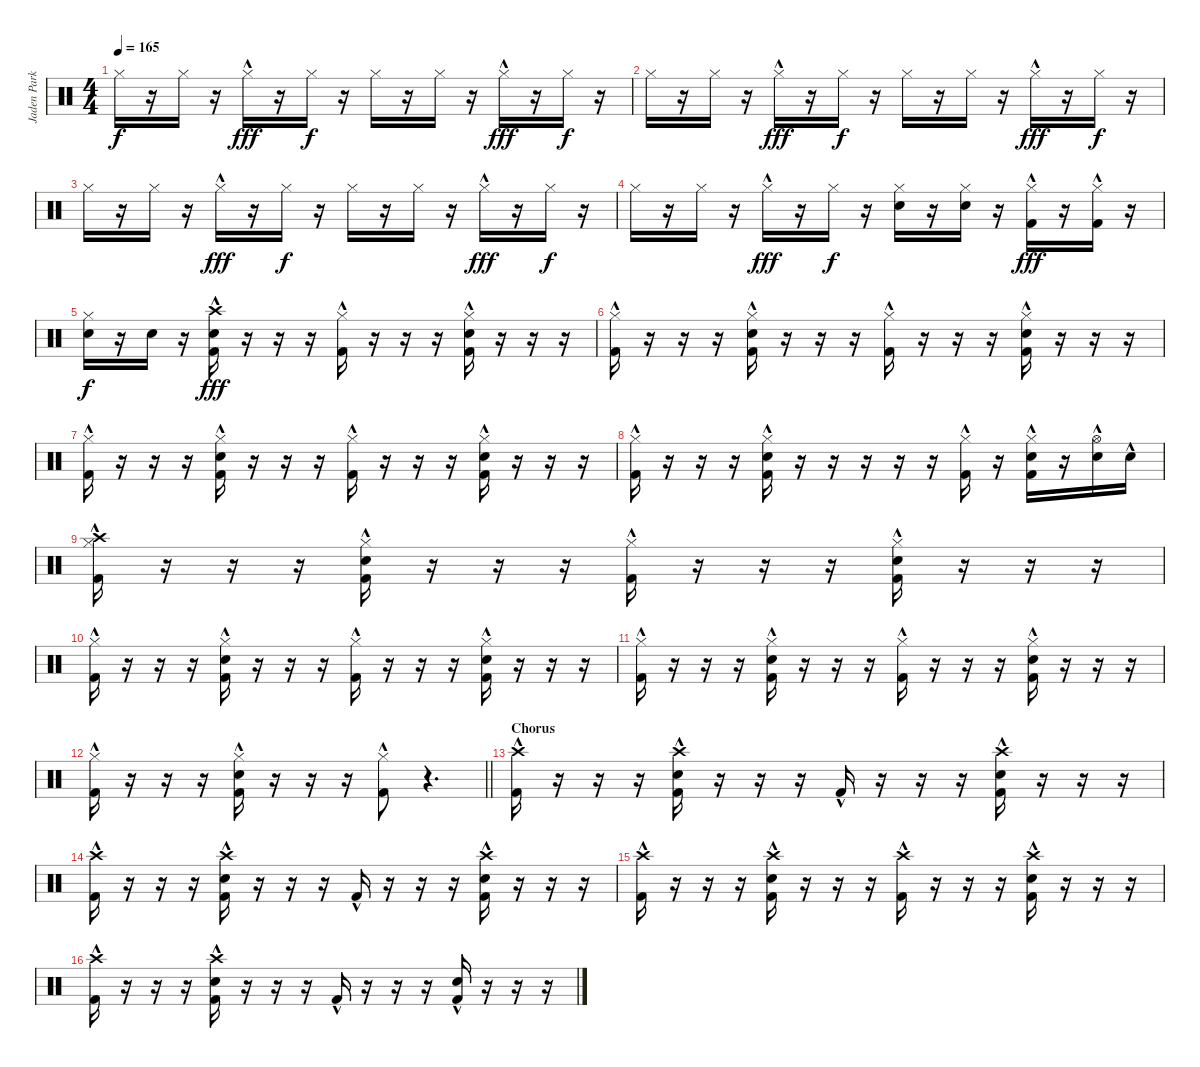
\track ("Jaden Parkes" "Jaden Park") {instrument percussion}
\staff {score}
\articulation defaults
\ts (4 4)
\tempo 165
\clef neutral
\ks c "Hi-Hat (closed)".16{dy f}
r.16 "Hi-Hat (closed)".16 r.16 "Hi-Hat (closed)"{hac}.16{dy fff} r.16 "Hi-Hat (closed)".16{dy f} r.16 "Hi-Hat (closed)".16 r.16 "Hi-Hat (closed)".16 r.16 "Hi-Hat (closed)"{hac}.16{dy fff} r.16 "Hi-Hat (closed)".16{dy f} r.16 |
"Hi-Hat (closed)".16 r.16 "Hi-Hat (closed)".16 r.16 "Hi-Hat (closed)"{hac}.16{dy fff} r.16 "Hi-Hat (closed)".16{dy f} r.16 "Hi-Hat (closed)".16 r.16 "Hi-Hat (closed)".16 r.16 "Hi-Hat (closed)"{hac}.16{dy fff} r.16 "Hi-Hat (closed)".16{dy f} r.16 |
"Hi-Hat (closed)".16 r.16 "Hi-Hat (closed)".16 r.16 "Hi-Hat (closed)"{hac}.16{dy fff} r.16 "Hi-Hat (closed)".16{dy f} r.16 "Hi-Hat (closed)".16 r.16 "Hi-Hat (closed)".16 r.16 "Hi-Hat (closed)"{hac}.16{dy fff} r.16 "Hi-Hat (closed)".16{dy f} r.16 |
"Hi-Hat (closed)".16{volume 14} r.16 "Hi-Hat (closed)".16 r.16 "Hi-Hat (closed)"{hac}.16{dy fff} r.16 "Hi-Hat (closed)".16{dy f} r.16 ("Hi-Hat (closed)" "Electric Snare (hit)").16 r.16 ("Hi-Hat (closed)" "Electric Snare (hit)").16 r.16 ("Hi-Hat (closed)"{hac} "Kick (hit) 2"{hac}).16{dy fff} r.16 ("Hi-Hat (closed)" "Kick (hit) 2"{hac}).16 r.16 |
("Hi-Hat (closed)" "Electric Snare (hit)").16{dy f} r.16 "Electric Snare (hit)".16 r.16 ("Crash high (hit)"{hac} "Electric Snare (hit)" "Kick (hit) 2"{hac}).16{dy fff} r.16 r.16 r.16 ("Hi-Hat (closed)" "Kick (hit) 2"{hac}).16 r.16 r.16 r.16 ("Hi-Hat (closed)"{hac} "Electric Snare (hit)" "Kick (hit) 2"{hac}).16 r.16 r.16 r.16 |
("Hi-Hat (closed)" "Kick (hit) 2"{hac}).16 r.16 r.16 r.16 ("Hi-Hat (closed)"{hac} "Electric Snare (hit)" "Kick (hit) 2"{hac}).16 r.16 r.16 r.16 ("Hi-Hat (closed)" "Kick (hit) 2"{hac}).16 r.16 r.16 r.16 ("Hi-Hat (closed)"{hac} "Electric Snare (hit)" "Kick (hit) 2"{hac}).16 r.16 r.16 r.16 |
("Hi-Hat (closed)" "Kick (hit) 2"{hac}).16 r.16 r.16 r.16 ("Hi-Hat (closed)"{hac} "Electric Snare (hit)" "Kick (hit) 2"{hac}).16 r.16 r.16 r.16 ("Hi-Hat (closed)" "Kick (hit) 2"{hac}).16 r.16 r.16 r.16 ("Hi-Hat (closed)"{hac} "Electric Snare (hit)" "Kick (hit) 2"{hac}).16 r.16 r.16 r.16 |
("Hi-Hat (closed)" "Kick (hit) 2"{hac}).16 r.16 r.16 r.16 ("Hi-Hat (closed)"{hac} "Electric Snare (hit)" "Kick (hit) 2"{hac}).16 r.16 r.16 r.16 r.16 r.16 ("Hi-Hat (closed)" "Kick (hit) 2"{hac}).16 r.16 ("Hi-Hat (closed)"{hac} "Electric Snare (hit)"{hac} "Kick (hit) 2"{hac}).16 r.16 ("Hi-Hat (open)" "Electric Snare (hit)"{hac}).16 "Electric Snare (hit)"{hac}.16 |
("Hi-Hat (closed)" "Crash high (hit)"{hac} "Kick (hit) 2"{hac}).16 r.16 r.16 r.16 ("Hi-Hat (closed)"{hac} "Electric Snare (hit)" "Kick (hit) 2"{hac}).16 r.16 r.16 r.16 ("Hi-Hat (closed)" "Kick (hit) 2"{hac}).16 r.16 r.16 r.16 ("Hi-Hat (closed)"{hac} "Electric Snare (hit)" "Kick (hit) 2"{hac}).16 r.16 r.16 r.16 |
("Hi-Hat (closed)" "Kick (hit) 2"{hac}).16 r.16 r.16 r.16 ("Hi-Hat (closed)"{hac} "Electric Snare (hit)" "Kick (hit) 2"{hac}).16 r.16 r.16 r.16 ("Hi-Hat (closed)" "Kick (hit) 2"{hac}).16 r.16 r.16 r.16 ("Hi-Hat (closed)"{hac} "Electric Snare (hit)" "Kick (hit) 2"{hac}).16 r.16 r.16 r.16 |
("Hi-Hat (closed)" "Kick (hit) 2"{hac}).16 r.16 r.16 r.16 ("Hi-Hat (closed)"{hac} "Electric Snare (hit)" "Kick (hit) 2"{hac}).16 r.16 r.16 r.16 ("Hi-Hat (closed)" "Kick (hit) 2"{hac}).16 r.16 r.16 r.16 ("Hi-Hat (closed)"{hac} "Electric Snare (hit)" "Kick (hit) 2"{hac}).16 r.16 r.16 r.16 |
\barLineRight lightlight
("Hi-Hat (closed)" "Kick (hit) 2"{hac}).16 r.16 r.16 r.16 ("Hi-Hat (closed)"{hac} "Electric Snare (hit)" "Kick (hit) 2"{hac}).16 r.16 r.16 r.16 ("Hi-Hat (closed)" "Kick (hit) 2"{hac}).8{volume 16} r.4{d} |
\section ("" "Chorus")
("Crash high (hit)" "Kick (hit) 2"{hac}).16 r.16 r.16 r.16 ("Crash high (hit)"{hac} "Electric Snare (hit)" "Kick (hit) 2"{hac}).16 r.16 r.16 r.16 "Kick (hit) 2"{hac}.16 r.16 r.16 r.16 ("Crash high (hit)"{hac} "Electric Snare (hit)" "Kick (hit) 2"{hac}).16 r.16 r.16 r.16 |
("Crash high (hit)" "Kick (hit) 2"{hac}).16 r.16 r.16 r.16 ("Crash high (hit)"{hac} "Electric Snare (hit)" "Kick (hit) 2"{hac}).16 r.16 r.16 r.16 "Kick (hit) 2"{hac}.16 r.16 r.16 r.16 ("Crash high (hit)"{hac} "Electric Snare (hit)" "Kick (hit) 2"{hac}).16 r.16 r.16 r.16 |
("Crash high (hit)" "Kick (hit) 2"{hac}).16 r.16 r.16 r.16 ("Crash high (hit)"{hac} "Electric Snare (hit)" "Kick (hit) 2"{hac}).16 r.16 r.16 r.16 ("Crash high (hit)" "Kick (hit) 2"{hac}).16 r.16 r.16 r.16 ("Crash high (hit)"{hac} "Electric Snare (hit)" "Kick (hit) 2"{hac}).16 r.16 r.16 r.16 |
("Crash high (hit)" "Kick (hit) 2"{hac}).16 r.16 r.16 r.16 ("Crash high (hit)"{hac} "Electric Snare (hit)" "Kick (hit) 2"{hac}).16 r.16 r.16 r.16 "Kick (hit) 2"{hac}.16 r.16 r.16 r.16 ("Electric Snare (hit)" "Kick (hit) 2"{hac}).16 r.16 r.16 r.16
